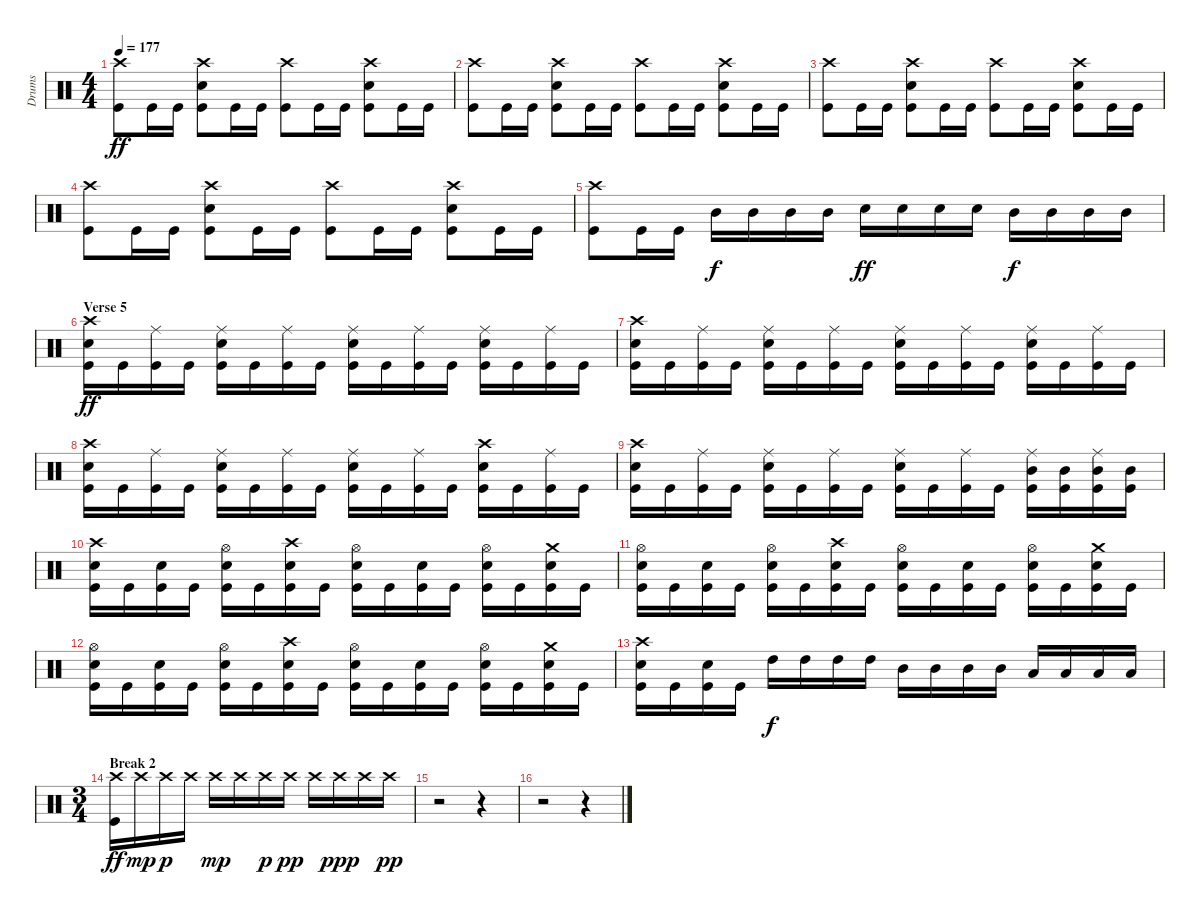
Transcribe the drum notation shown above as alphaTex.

\track ("Drums" "Drums") {instrument percussion}
\staff {score}
\articulation defaults
\ts (4 4)
\tempo 177
\clef neutral
\ks c
("Crash high (hit)" "Kick (hit)").8{dy ff} "Kick (hit)".16 "Kick (hit)".16 ("Crash high (hit)" "Electric Snare (hit)" "Kick (hit)").8 "Kick (hit)".16 "Kick (hit)".16 ("Crash high (hit)" "Kick (hit)").8 "Kick (hit)".16 "Kick (hit)".16 ("Crash high (hit)" "Electric Snare (hit)" "Kick (hit)").8 "Kick (hit)".16 "Kick (hit)".16 |
("Crash high (hit)" "Kick (hit)").8 "Kick (hit)".16 "Kick (hit)".16 ("Crash high (hit)" "Electric Snare (hit)" "Kick (hit)").8 "Kick (hit)".16 "Kick (hit)".16 ("Crash high (hit)" "Kick (hit)").8 "Kick (hit)".16 "Kick (hit)".16 ("Crash high (hit)" "Electric Snare (hit)" "Kick (hit)").8 "Kick (hit)".16 "Kick (hit)".16 |
("Crash high (hit)" "Kick (hit)").8 "Kick (hit)".16 "Kick (hit)".16 ("Crash high (hit)" "Electric Snare (hit)" "Kick (hit)").8 "Kick (hit)".16 "Kick (hit)".16 ("Crash high (hit)" "Kick (hit)").8 "Kick (hit)".16 "Kick (hit)".16 ("Crash high (hit)" "Electric Snare (hit)" "Kick (hit)").8 "Kick (hit)".16 "Kick (hit)".16 |
("Crash high (hit)" "Kick (hit)").8 "Kick (hit)".16 "Kick (hit)".16 ("Crash high (hit)" "Electric Snare (hit)" "Kick (hit)").8 "Kick (hit)".16 "Kick (hit)".16 ("Crash high (hit)" "Kick (hit)").8 "Kick (hit)".16 "Kick (hit)".16 ("Crash high (hit)" "Electric Snare (hit)" "Kick (hit)").8 "Kick (hit)".16 "Kick (hit)".16 |
("Crash high (hit)" "Kick (hit)").8 "Kick (hit)".16 "Kick (hit)".16 "Mid Tom (hit)".16{dy f} "Mid Tom (hit)".16 "Mid Tom (hit)".16 "Mid Tom (hit)".16 "Electric Snare (hit)".16{dy ff} "Electric Snare (hit)".16 "Electric Snare (hit)".16 "Electric Snare (hit)".16 "Mid Tom (hit)".16{dy f} "Mid Tom (hit)".16 "Mid Tom (hit)".16 "Mid Tom (hit)".16 |
\section ("" "Verse 5")
("Crash high (hit)" "Electric Snare (hit)" "Kick (hit)").16{dy ff} "Kick (hit)".16 ("Ride (middle)" "Kick (hit)").16 "Kick (hit)".16 ("Ride (middle)" "Electric Snare (hit)" "Kick (hit)").16 "Kick (hit)".16 ("Ride (middle)" "Kick (hit)").16 "Kick (hit)".16 ("Ride (middle)" "Electric Snare (hit)" "Kick (hit)").16 "Kick (hit)".16 ("Ride (middle)" "Kick (hit)").16 "Kick (hit)".16 ("Ride (middle)" "Electric Snare (hit)" "Kick (hit)").16 "Kick (hit)".16 ("Ride (middle)" "Kick (hit)").16 "Kick (hit)".16 |
("Crash high (hit)" "Electric Snare (hit)" "Kick (hit)").16 "Kick (hit)".16 ("Ride (middle)" "Kick (hit)").16 "Kick (hit)".16 ("Ride (middle)" "Electric Snare (hit)" "Kick (hit)").16 "Kick (hit)".16 ("Ride (middle)" "Kick (hit)").16 "Kick (hit)".16 ("Ride (middle)" "Electric Snare (hit)" "Kick (hit)").16 "Kick (hit)".16 ("Ride (middle)" "Kick (hit)").16 "Kick (hit)".16 ("Ride (middle)" "Electric Snare (hit)" "Kick (hit)").16 "Kick (hit)".16 ("Ride (middle)" "Kick (hit)").16 "Kick (hit)".16 |
("Crash high (hit)" "Electric Snare (hit)" "Kick (hit)").16 "Kick (hit)".16 ("Ride (middle)" "Kick (hit)").16 "Kick (hit)".16 ("Ride (middle)" "Electric Snare (hit)" "Kick (hit)").16 "Kick (hit)".16 ("Ride (middle)" "Kick (hit)").16 "Kick (hit)".16 ("Ride (middle)" "Electric Snare (hit)" "Kick (hit)").16 "Kick (hit)".16 ("Ride (middle)" "Kick (hit)").16 "Kick (hit)".16 ("Crash high (hit)" "Electric Snare (hit)" "Kick (hit)").16 "Kick (hit)".16 ("Ride (middle)" "Kick (hit)").16 "Kick (hit)".16 |
("Crash high (hit)" "Electric Snare (hit)" "Kick (hit)").16 "Kick (hit)".16 ("Ride (middle)" "Kick (hit)").16 "Kick (hit)".16 ("Ride (middle)" "Electric Snare (hit)" "Kick (hit)").16 "Kick (hit)".16 ("Ride (middle)" "Kick (hit)").16 "Kick (hit)".16 ("Ride (middle)" "Electric Snare (hit)" "Kick (hit)").16 "Kick (hit)".16 ("Ride (middle)" "Kick (hit)").16 "Kick (hit)".16 ("Ride (middle)" "Mid Tom (hit)" "Kick (hit)").16 ("Mid Tom (hit)" "Kick (hit)").16 ("Ride (middle)" "Mid Tom (hit)" "Kick (hit)").16 ("Mid Tom (hit)" "Kick (hit)").16 |
("Crash high (hit)" "Electric Snare (hit)" "Kick (hit)").16 "Kick (hit)".16 ("Electric Snare (hit)" "Kick (hit)").16 "Kick (hit)".16 ("Hi-Hat (open)" "Electric Snare (hit)" "Kick (hit)").16 "Kick (hit)".16 ("Crash high (hit)" "Electric Snare (hit)" "Kick (hit)").16 "Kick (hit)".16 ("Hi-Hat (open)" "Electric Snare (hit)" "Kick (hit)").16 "Kick (hit)".16 ("Electric Snare (hit)" "Kick (hit)").16 "Kick (hit)".16 ("Hi-Hat (open)" "Electric Snare (hit)" "Kick (hit)").16 "Kick (hit)".16 ("Crash medium (hit)" "Electric Snare (hit)" "Kick (hit)").16 "Kick (hit)".16 |
("Hi-Hat (open)" "Electric Snare (hit)" "Kick (hit)").16 "Kick (hit)".16 ("Electric Snare (hit)" "Kick (hit)").16 "Kick (hit)".16 ("Hi-Hat (open)" "Electric Snare (hit)" "Kick (hit)").16 "Kick (hit)".16 ("Crash high (hit)" "Electric Snare (hit)" "Kick (hit)").16 "Kick (hit)".16 ("Hi-Hat (open)" "Electric Snare (hit)" "Kick (hit)").16 "Kick (hit)".16 ("Electric Snare (hit)" "Kick (hit)").16 "Kick (hit)".16 ("Hi-Hat (open)" "Electric Snare (hit)" "Kick (hit)").16 "Kick (hit)".16 ("Crash medium (hit)" "Electric Snare (hit)" "Kick (hit)").16 "Kick (hit)".16 |
("Hi-Hat (open)" "Electric Snare (hit)" "Kick (hit)").16 "Kick (hit)".16 ("Electric Snare (hit)" "Kick (hit)").16 "Kick (hit)".16 ("Hi-Hat (open)" "Electric Snare (hit)" "Kick (hit)").16 "Kick (hit)".16 ("Crash high (hit)" "Electric Snare (hit)" "Kick (hit)").16 "Kick (hit)".16 ("Hi-Hat (open)" "Electric Snare (hit)" "Kick (hit)").16 "Kick (hit)".16 ("Electric Snare (hit)" "Kick (hit)").16 "Kick (hit)".16 ("Hi-Hat (open)" "Electric Snare (hit)" "Kick (hit)").16 "Kick (hit)".16 ("Crash medium (hit)" "Electric Snare (hit)" "Kick (hit)").16 "Kick (hit)".16 |
("Crash high (hit)" "Electric Snare (hit)" "Kick (hit)").16 "Kick (hit)".16 ("Electric Snare (hit)" "Kick (hit)").16 "Kick (hit)".16 "High Tom (hit)".16{dy f} "High Tom (hit)".16 "High Tom (hit)".16 "High Tom (hit)".16 "Mid Tom (hit)".16 "Mid Tom (hit)".16 "Mid Tom (hit)".16 "Mid Tom (hit)".16 "Low Tom (hit)".16 "Low Tom (hit)".16 "Low Tom (hit)".16 "Low Tom (hit)".16 |
\ts (3 4)
\section ("" "Break 2")
("Crash high (hit)" "Kick (hit)").16{dy ff} "Crash high (hit)".16{dy mp} "Crash high (hit)".16{dy p} "Crash high (hit)".16 "Crash high (hit)".16{dy mp} "Crash high (hit)".16 "Crash high (hit)".16{dy p} "Crash high (hit)".16{dy pp} "Crash high (hit)".16 "Crash high (hit)".16{dy ppp} "Crash high (hit)".16 "Crash high (hit)".16{dy pp} |
r.2 r.4 |
r.2 r.4
